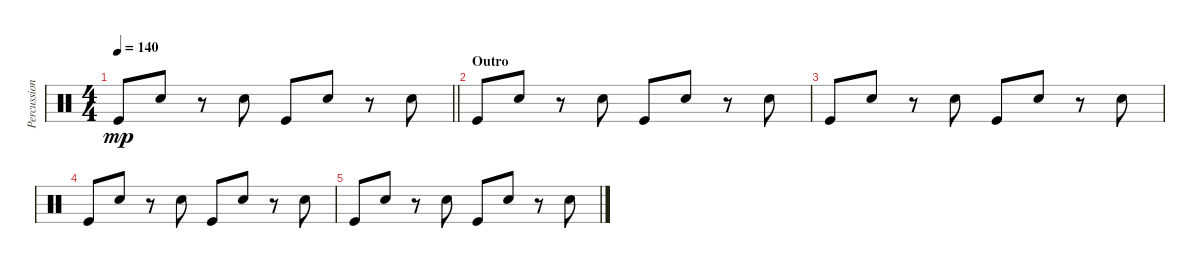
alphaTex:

\track ("Percussion" "Percussion") {instrument percussion}
\staff {score}
\articulation defaults
\ts (4 4)
\tempo 140
\clef neutral
\barLineRight lightlight
\ks c "Kick (hit)".8{dy mp} "Electric Snare (hit)".8
r.8 "Electric Snare (hit)".8 "Kick (hit)".8 "Electric Snare (hit)".8 r.8 "Electric Snare (hit)".8 |
\section ("" "Outro")
"Kick (hit)".8 "Electric Snare (hit)".8 r.8 "Electric Snare (hit)".8 "Kick (hit)".8 "Electric Snare (hit)".8 r.8 "Electric Snare (hit)".8 |
"Kick (hit)".8 "Electric Snare (hit)".8 r.8 "Electric Snare (hit)".8 "Kick (hit)".8 "Electric Snare (hit)".8 r.8 "Electric Snare (hit)".8 |
"Kick (hit)".8 "Electric Snare (hit)".8 r.8 "Electric Snare (hit)".8 "Kick (hit)".8 "Electric Snare (hit)".8 r.8 "Electric Snare (hit)".8 |
"Kick (hit)".8 "Electric Snare (hit)".8 r.8 "Electric Snare (hit)".8 "Kick (hit)".8 "Electric Snare (hit)".8 r.8 "Electric Snare (hit)".8
